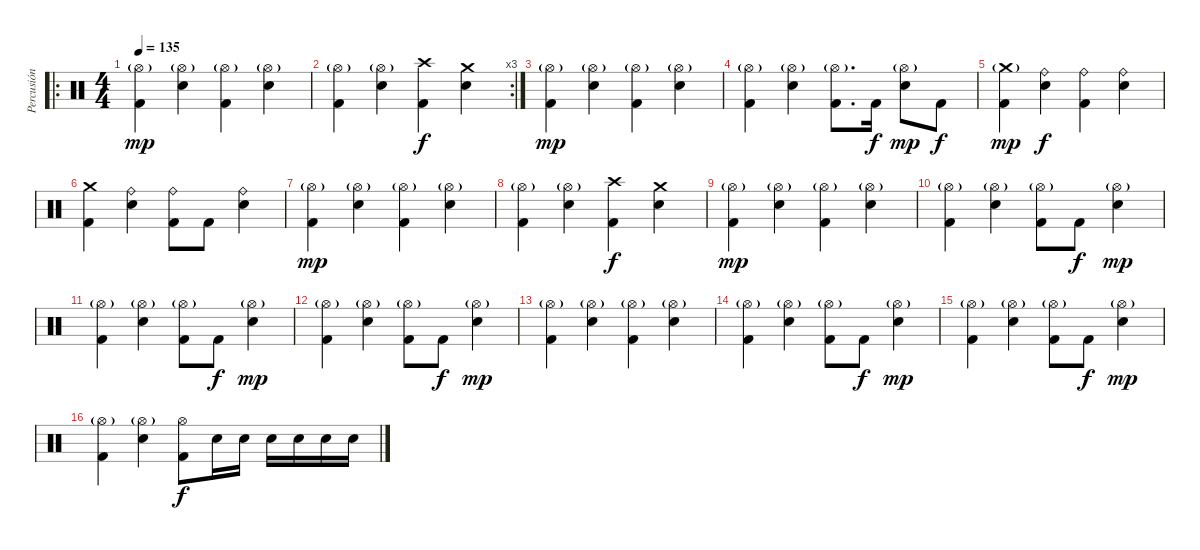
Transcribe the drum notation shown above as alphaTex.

\track ("Percusión" "Percusión") {instrument percussion}
\staff {score}
\articulation defaults
\ro
\ts (4 4)
\tempo 135
\clef neutral
\ks c
("Hi-Hat (open)"{g} "Kick (hit) 2").4{dy mp} ("Hi-Hat (open)"{g} "Snare (hit) 2").4 ("Hi-Hat (open)"{g} "Kick (hit) 2").4 ("Hi-Hat (open)"{g} "Snare (hit) 2").4 |
\rc 3
("Hi-Hat (open)"{g} "Kick (hit) 2").4 ("Hi-Hat (open)"{g} "Snare (hit) 2").4 ("Crash high (hit)" "Kick (hit) 2").4{dy f} ("Crash medium (hit)" "Snare (hit) 2").4 |
("Hi-Hat (open)"{g} "Kick (hit) 2").4{dy mp} ("Hi-Hat (open)"{g} "Snare (hit) 2").4 ("Hi-Hat (open)"{g} "Kick (hit) 2").4 ("Hi-Hat (open)"{g} "Snare (hit) 2").4 |
("Hi-Hat (open)"{g} "Kick (hit) 2").4 ("Hi-Hat (open)"{g} "Snare (hit) 2").4 ("Hi-Hat (open)"{g} "Kick (hit) 2").8{d} "Kick (hit) 2".16{dy f} ("Hi-Hat (open)"{g} "Snare (hit) 2").8{dy mp} "Kick (hit) 2".8{dy f} |
("Crash medium (hit)"{g} "Kick (hit) 2").4{dy mp} ("Ride (bell)" "Snare (hit) 2").4{dy f} ("Ride (bell)" "Kick (hit) 2").4 ("Ride (bell)" "Snare (hit) 2").4 |
("Crash medium (hit)" "Kick (hit) 2").4 ("Ride (bell)" "Snare (hit) 2").4 ("Ride (bell)" "Kick (hit) 2").8 "Kick (hit) 2".8 ("Ride (bell)" "Snare (hit) 2").4 |
("Hi-Hat (open)"{g} "Kick (hit) 2").4{dy mp} ("Hi-Hat (open)"{g} "Snare (hit) 2").4 ("Hi-Hat (open)"{g} "Kick (hit) 2").4 ("Hi-Hat (open)"{g} "Snare (hit) 2").4 |
("Hi-Hat (open)"{g} "Kick (hit) 2").4 ("Hi-Hat (open)"{g} "Snare (hit) 2").4 ("Crash high (hit)" "Kick (hit) 2").4{dy f} ("Crash medium (hit)" "Snare (hit) 2").4 |
("Hi-Hat (open)"{g} "Kick (hit) 2").4{dy mp} ("Hi-Hat (open)"{g} "Snare (hit) 2").4 ("Hi-Hat (open)"{g} "Kick (hit) 2").4 ("Hi-Hat (open)"{g} "Snare (hit) 2").4 |
("Hi-Hat (open)"{g} "Kick (hit) 2").4 ("Hi-Hat (open)"{g} "Snare (hit) 2").4 ("Hi-Hat (open)"{g} "Kick (hit) 2").8 "Kick (hit) 2".8{dy f} ("Hi-Hat (open)"{g} "Snare (hit) 2").4{dy mp} |
("Hi-Hat (open)"{g} "Kick (hit) 2").4 ("Hi-Hat (open)"{g} "Snare (hit) 2").4 ("Hi-Hat (open)"{g} "Kick (hit) 2").8 "Kick (hit) 2".8{dy f} ("Hi-Hat (open)"{g} "Snare (hit) 2").4{dy mp} |
("Hi-Hat (open)"{g} "Kick (hit) 2").4 ("Hi-Hat (open)"{g} "Snare (hit) 2").4 ("Hi-Hat (open)"{g} "Kick (hit) 2").8 "Kick (hit) 2".8{dy f} ("Hi-Hat (open)"{g} "Snare (hit) 2").4{dy mp} |
("Hi-Hat (open)"{g} "Kick (hit) 2").4 ("Hi-Hat (open)"{g} "Snare (hit) 2").4 ("Hi-Hat (open)"{g} "Kick (hit) 2").4 ("Hi-Hat (open)"{g} "Snare (hit) 2").4 |
("Hi-Hat (open)"{g} "Kick (hit) 2").4 ("Hi-Hat (open)"{g} "Snare (hit) 2").4 ("Hi-Hat (open)"{g} "Kick (hit) 2").8 "Kick (hit) 2".8{dy f} ("Hi-Hat (open)"{g} "Snare (hit) 2").4{dy mp} |
("Hi-Hat (open)"{g} "Kick (hit) 2").4 ("Hi-Hat (open)"{g} "Snare (hit) 2").4 ("Hi-Hat (open)"{g} "Kick (hit) 2").8 "Kick (hit) 2".8{dy f} ("Hi-Hat (open)"{g} "Snare (hit) 2").4{dy mp} |
("Hi-Hat (open)"{g} "Kick (hit) 2").4 ("Hi-Hat (open)"{g} "Snare (hit) 2").4 ("Hi-Hat (open)" "Kick (hit) 2").8{dy f} "Snare (hit) 2".16 "Snare (hit) 2".16 "Snare (hit) 2".16 "Snare (hit) 2".16 "Snare (hit) 2".16 "Snare (hit) 2".16
